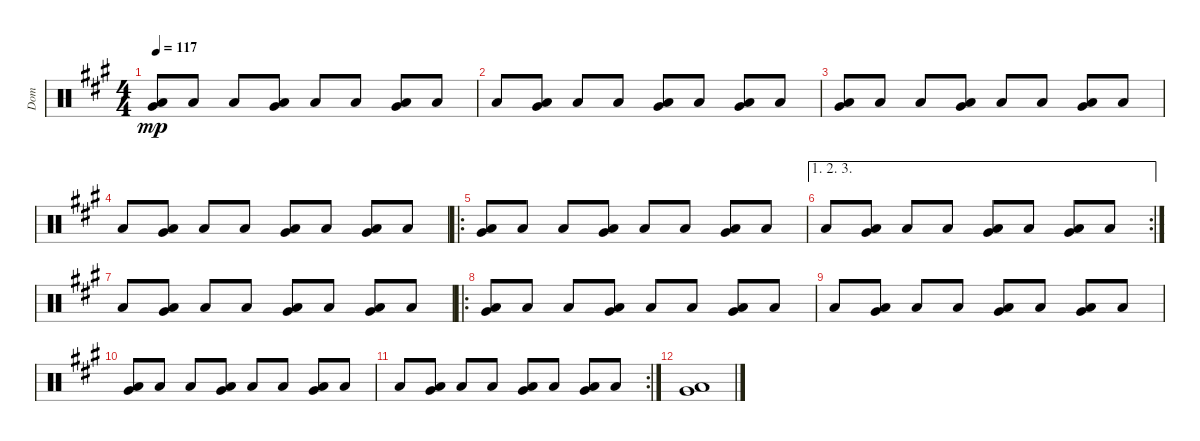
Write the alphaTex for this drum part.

\track ("Dom" "Dom") {instrument percussion}
\staff {score}
\articulation defaults
\ts (4 4)
\tempo 117
\clef neutral
\ks a
("Very Low Tom (hit)" "Low Floor Tom (hit)").8{dy mp} "Low Floor Tom (hit)".8 "Low Floor Tom (hit)".8 ("Very Low Tom (hit)" "Low Floor Tom (hit)").8 "Low Floor Tom (hit)".8 "Low Floor Tom (hit)".8 ("Very Low Tom (hit)" "Low Floor Tom (hit)").8 "Low Floor Tom (hit)".8 |
"Low Floor Tom (hit)".8 ("Very Low Tom (hit)" "Low Floor Tom (hit)").8 "Low Floor Tom (hit)".8 "Low Floor Tom (hit)".8 ("Very Low Tom (hit)" "Low Floor Tom (hit)").8 "Low Floor Tom (hit)".8 ("Very Low Tom (hit)" "Low Floor Tom (hit)").8 "Low Floor Tom (hit)".8 |
("Very Low Tom (hit)" "Low Floor Tom (hit)").8 "Low Floor Tom (hit)".8 "Low Floor Tom (hit)".8 ("Very Low Tom (hit)" "Low Floor Tom (hit)").8 "Low Floor Tom (hit)".8 "Low Floor Tom (hit)".8 ("Very Low Tom (hit)" "Low Floor Tom (hit)").8 "Low Floor Tom (hit)".8 |
"Low Floor Tom (hit)".8 ("Very Low Tom (hit)" "Low Floor Tom (hit)").8 "Low Floor Tom (hit)".8 "Low Floor Tom (hit)".8 ("Very Low Tom (hit)" "Low Floor Tom (hit)").8 "Low Floor Tom (hit)".8 ("Very Low Tom (hit)" "Low Floor Tom (hit)").8 "Low Floor Tom (hit)".8 |
\ro
("Very Low Tom (hit)" "Low Floor Tom (hit)").8 "Low Floor Tom (hit)".8 "Low Floor Tom (hit)".8 ("Very Low Tom (hit)" "Low Floor Tom (hit)").8 "Low Floor Tom (hit)".8 "Low Floor Tom (hit)".8 ("Very Low Tom (hit)" "Low Floor Tom (hit)").8 "Low Floor Tom (hit)".8 |
\ae (1 2 3)
\rc 2 "Low Floor Tom (hit)".8
("Very Low Tom (hit)" "Low Floor Tom (hit)").8 "Low Floor Tom (hit)".8 "Low Floor Tom (hit)".8 ("Very Low Tom (hit)" "Low Floor Tom (hit)").8 "Low Floor Tom (hit)".8 ("Very Low Tom (hit)" "Low Floor Tom (hit)").8 "Low Floor Tom (hit)".8 |
"Low Floor Tom (hit)".8 ("Very Low Tom (hit)" "Low Floor Tom (hit)").8 "Low Floor Tom (hit)".8 "Low Floor Tom (hit)".8 ("Very Low Tom (hit)" "Low Floor Tom (hit)").8 "Low Floor Tom (hit)".8 ("Very Low Tom (hit)" "Low Floor Tom (hit)").8 "Low Floor Tom (hit)".8 |
\ro
("Very Low Tom (hit)" "Low Floor Tom (hit)").8 "Low Floor Tom (hit)".8 "Low Floor Tom (hit)".8 ("Very Low Tom (hit)" "Low Floor Tom (hit)").8 "Low Floor Tom (hit)".8 "Low Floor Tom (hit)".8 ("Very Low Tom (hit)" "Low Floor Tom (hit)").8 "Low Floor Tom (hit)".8 |
"Low Floor Tom (hit)".8 ("Very Low Tom (hit)" "Low Floor Tom (hit)").8 "Low Floor Tom (hit)".8 "Low Floor Tom (hit)".8 ("Very Low Tom (hit)" "Low Floor Tom (hit)").8 "Low Floor Tom (hit)".8 ("Very Low Tom (hit)" "Low Floor Tom (hit)").8 "Low Floor Tom (hit)".8 |
("Very Low Tom (hit)" "Low Floor Tom (hit)").8 "Low Floor Tom (hit)".8 "Low Floor Tom (hit)".8 ("Very Low Tom (hit)" "Low Floor Tom (hit)").8 "Low Floor Tom (hit)".8 "Low Floor Tom (hit)".8 ("Very Low Tom (hit)" "Low Floor Tom (hit)").8 "Low Floor Tom (hit)".8 |
\rc 2 "Low Floor Tom (hit)".8
("Very Low Tom (hit)" "Low Floor Tom (hit)").8 "Low Floor Tom (hit)".8 "Low Floor Tom (hit)".8 ("Very Low Tom (hit)" "Low Floor Tom (hit)").8 "Low Floor Tom (hit)".8 ("Very Low Tom (hit)" "Low Floor Tom (hit)").8 "Low Floor Tom (hit)".8 |
("Very Low Tom (hit)" "Low Floor Tom (hit)").1
